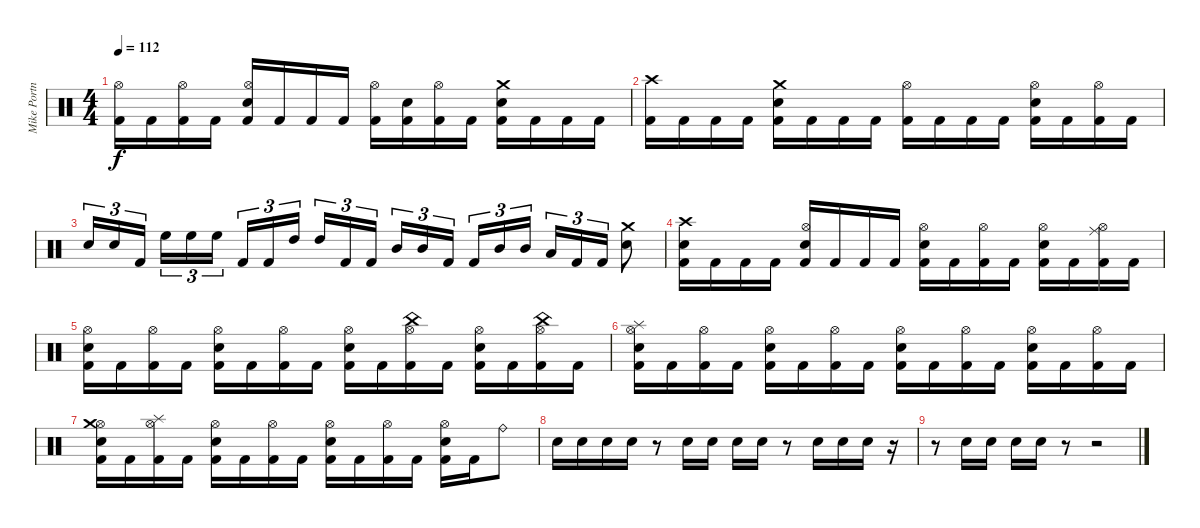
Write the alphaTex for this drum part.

\track ("Mike Portnoy" "Mike Portn") {instrument percussion}
\staff {score}
\articulation defaults
\ts (4 4)
\tempo 112
\clef neutral
\ks c
("Kick (hit) 2" "Hi-Hat (open)").16{dy f} "Kick (hit) 2".16 ("Kick (hit) 2" "Hi-Hat (open)").16 "Kick (hit) 2".16 ("Kick (hit) 2" "Electric Snare (hit)" "Hi-Hat (open)").16 "Kick (hit) 2".16 "Kick (hit) 2".16 "Kick (hit) 2".16 ("Kick (hit) 2" "Hi-Hat (open)").16 ("Kick (hit) 2" "Electric Snare (hit)").16 ("Kick (hit) 2" "Hi-Hat (open)").16 "Kick (hit) 2".16 ("Kick (hit) 2" "Electric Snare (hit)" "Crash medium (hit)").16 "Kick (hit) 2".16 "Kick (hit) 2".16 "Kick (hit) 2".16 |
("Kick (hit) 2" "Crash high (hit)").16 "Kick (hit) 2".16 "Kick (hit) 2".16 "Kick (hit) 2".16 ("Kick (hit) 2" "Electric Snare (hit)" "Crash medium (hit)").16 "Kick (hit) 2".16 "Kick (hit) 2".16 "Kick (hit) 2".16 ("Kick (hit) 2" "Hi-Hat (open)").16 "Kick (hit) 2".16 "Kick (hit) 2".16 "Kick (hit) 2".16 ("Kick (hit) 2" "Electric Snare (hit)" "Hi-Hat (open)").16 "Kick (hit) 2".16 ("Kick (hit) 2" "Hi-Hat (open)").16 "Kick (hit) 2".16 |
"Electric Snare (hit)".16{tu (3 2)} "Electric Snare (hit)".16{tu (3 2)} "Kick (hit) 2".16{tu (3 2) beam splitsecondary} "High Floor Tom (hit)".16{tu (3 2)} "High Floor Tom (hit)".16{tu (3 2)} "High Floor Tom (hit)".16{tu (3 2)} "Kick (hit) 2".16{tu (3 2)} "Kick (hit) 2".16{tu (3 2)} "High Tom (hit)".16{tu (3 2) beam splitsecondary} "High Tom (hit)".16{tu (3 2)} "Kick (hit) 2".16{tu (3 2)} "Kick (hit) 2".16{tu (3 2)} "Mid Tom (hit)".16{tu (3 2)} "Mid Tom (hit)".16{tu (3 2)} "Kick (hit) 2".16{tu (3 2) beam splitsecondary} "Kick (hit) 2".16{tu (3 2)} "Mid Tom (hit)".16{tu (3 2)} "Mid Tom (hit)".16{tu (3 2)} "Low Tom (hit)".16{tu (3 2)} "Kick (hit) 2".16{tu (3 2)} "Kick (hit) 2".16{tu (3 2)} ("Electric Snare (hit)" "Crash medium (hit)").8 |
("Kick (hit) 2" "Electric Snare (hit)" "Crash high (hit)").16 "Kick (hit) 2".16 "Kick (hit) 2".16 "Kick (hit) 2".16 ("Kick (hit) 2" "Electric Snare (hit)" "Hi-Hat (open)").16 "Kick (hit) 2".16 "Kick (hit) 2".16 "Kick (hit) 2".16 ("Kick (hit) 2" "Electric Snare (hit)" "Hi-Hat (open)").16 "Kick (hit) 2".16 ("Kick (hit) 2" "Hi-Hat (open)").16 "Kick (hit) 2".16 ("Kick (hit) 2" "Electric Snare (hit)" "Hi-Hat (open)").16 "Kick (hit) 2".16 ("Kick (hit) 2" "Hi-Hat (open)" "Ride (middle)").16 "Kick (hit) 2".16 |
("Kick (hit) 2" "Electric Snare (hit)" "Hi-Hat (open)").16 "Kick (hit) 2".16 ("Kick (hit) 2" "Hi-Hat (open)").16 "Kick (hit) 2".16 ("Kick (hit) 2" "Electric Snare (hit)" "Hi-Hat (open)").16 "Kick (hit) 2".16 ("Kick (hit) 2" "Hi-Hat (open)").16 "Kick (hit) 2".16 ("Kick (hit) 2" "Electric Snare (hit)" "Hi-Hat (open)").16 "Kick (hit) 2".16 ("Kick (hit) 2" "Hi-Hat (open)" "China (hit)").16 "Kick (hit) 2".16 ("Kick (hit) 2" "Electric Snare (hit)" "Hi-Hat (open)").16 "Kick (hit) 2".16 ("Kick (hit) 2" "Hi-Hat (open)" "China (hit)").16 "Kick (hit) 2".16 |
("Kick (hit) 2" "Electric Snare (hit)" "Hi-Hat (open)" "Splash (hit)").16 "Kick (hit) 2".16 ("Kick (hit) 2" "Hi-Hat (open)").16 "Kick (hit) 2".16 ("Kick (hit) 2" "Electric Snare (hit)" "Hi-Hat (open)").16 "Kick (hit) 2".16 ("Kick (hit) 2" "Hi-Hat (open)").16 "Kick (hit) 2".16 ("Kick (hit) 2" "Electric Snare (hit)" "Hi-Hat (open)").16 "Kick (hit) 2".16 ("Kick (hit) 2" "Hi-Hat (open)").16 "Kick (hit) 2".16 ("Kick (hit) 2" "Electric Snare (hit)" "Hi-Hat (open)").16 "Kick (hit) 2".16 ("Kick (hit) 2" "Hi-Hat (open)").16 "Kick (hit) 2".16 |
("Kick (hit) 2" "Electric Snare (hit)" "Hi-Hat (open)" "Crash medium (hit)").16 "Kick (hit) 2".16 ("Kick (hit) 2" "Hi-Hat (open)" "Splash (hit)").16 "Kick (hit) 2".16 ("Kick (hit) 2" "Electric Snare (hit)" "Hi-Hat (open)").16 "Kick (hit) 2".16 ("Kick (hit) 2" "Hi-Hat (open)").16 "Kick (hit) 2".16 ("Kick (hit) 2" "Electric Snare (hit)" "Hi-Hat (open)").16 "Kick (hit) 2".16 ("Kick (hit) 2" "Hi-Hat (open)").16 "Kick (hit) 2".16 ("Kick (hit) 2" "Electric Snare (hit)" "Hi-Hat (open)").16 "Kick (hit) 2".16 "Ride (bell)".8 |
"Electric Snare (hit)".16 "Electric Snare (hit)".16 "Electric Snare (hit)".16 "Electric Snare (hit)".16 r.8 "Electric Snare (hit)".16 "Electric Snare (hit)".16 "Electric Snare (hit)".16 "Electric Snare (hit)".16 r.8 "Electric Snare (hit)".16 "Electric Snare (hit)".16 "Electric Snare (hit)".16 r.16 |
r.8 "Electric Snare (hit)".16 "Electric Snare (hit)".16 "Electric Snare (hit)".16 "Electric Snare (hit)".16 r.8 r.2
